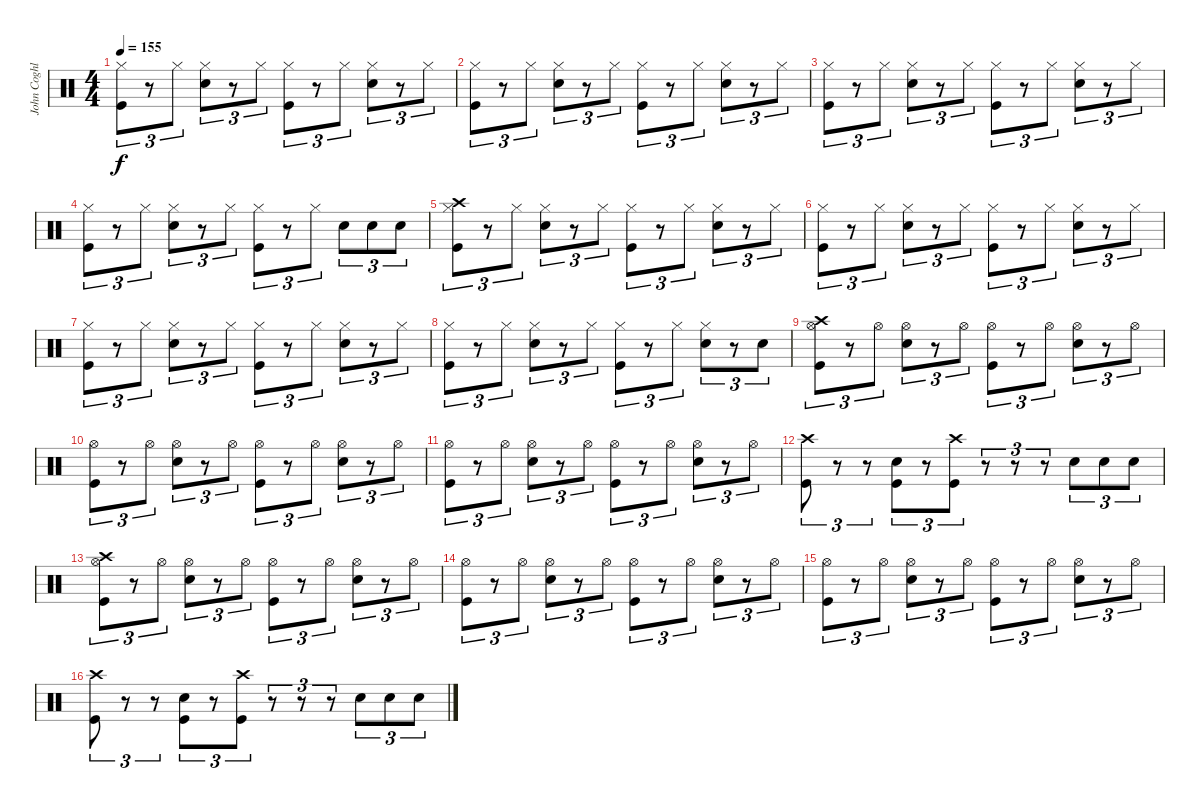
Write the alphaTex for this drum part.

\track ("John Coghlan" "John Coghl") {instrument percussion}
\staff {score}
\articulation defaults
\ts (4 4)
\tempo 155
\clef neutral
\ks c
("Hi-Hat (closed)" "Kick (hit)").8{tu (3 2) dy f} r.8{tu (3 2)} "Hi-Hat (closed)".8{tu (3 2)} ("Electric Snare (hit)" "Hi-Hat (closed)").8{tu (3 2)} r.8{tu (3 2)} "Hi-Hat (closed)".8{tu (3 2)} ("Hi-Hat (closed)" "Kick (hit)").8{tu (3 2)} r.8{tu (3 2)} "Hi-Hat (closed)".8{tu (3 2)} ("Electric Snare (hit)" "Hi-Hat (closed)").8{tu (3 2)} r.8{tu (3 2)} "Hi-Hat (closed)".8{tu (3 2)} |
("Hi-Hat (closed)" "Kick (hit)").8{tu (3 2)} r.8{tu (3 2)} "Hi-Hat (closed)".8{tu (3 2)} ("Electric Snare (hit)" "Hi-Hat (closed)").8{tu (3 2)} r.8{tu (3 2)} "Hi-Hat (closed)".8{tu (3 2)} ("Hi-Hat (closed)" "Kick (hit)").8{tu (3 2)} r.8{tu (3 2)} "Hi-Hat (closed)".8{tu (3 2)} ("Electric Snare (hit)" "Hi-Hat (closed)").8{tu (3 2)} r.8{tu (3 2)} "Hi-Hat (closed)".8{tu (3 2)} |
("Hi-Hat (closed)" "Kick (hit)").8{tu (3 2)} r.8{tu (3 2)} "Hi-Hat (closed)".8{tu (3 2)} ("Electric Snare (hit)" "Hi-Hat (closed)").8{tu (3 2)} r.8{tu (3 2)} "Hi-Hat (closed)".8{tu (3 2)} ("Hi-Hat (closed)" "Kick (hit)").8{tu (3 2)} r.8{tu (3 2)} "Hi-Hat (closed)".8{tu (3 2)} ("Electric Snare (hit)" "Hi-Hat (closed)").8{tu (3 2)} r.8{tu (3 2)} "Hi-Hat (closed)".8{tu (3 2)} |
("Hi-Hat (closed)" "Kick (hit)").8{tu (3 2)} r.8{tu (3 2)} "Hi-Hat (closed)".8{tu (3 2)} ("Electric Snare (hit)" "Hi-Hat (closed)").8{tu (3 2)} r.8{tu (3 2)} "Hi-Hat (closed)".8{tu (3 2)} ("Hi-Hat (closed)" "Kick (hit)").8{tu (3 2)} r.8{tu (3 2)} "Hi-Hat (closed)".8{tu (3 2)} "Electric Snare (hit)".8{tu (3 2)} "Electric Snare (hit)".8{tu (3 2)} "Electric Snare (hit)".8{tu (3 2)} |
("Crash high (hit)" "Hi-Hat (closed)" "Kick (hit)").8{tu (3 2)} r.8{tu (3 2)} "Hi-Hat (closed)".8{tu (3 2)} ("Electric Snare (hit)" "Hi-Hat (closed)").8{tu (3 2)} r.8{tu (3 2)} "Hi-Hat (closed)".8{tu (3 2)} ("Hi-Hat (closed)" "Kick (hit)").8{tu (3 2)} r.8{tu (3 2)} "Hi-Hat (closed)".8{tu (3 2)} ("Electric Snare (hit)" "Hi-Hat (closed)").8{tu (3 2)} r.8{tu (3 2)} "Hi-Hat (closed)".8{tu (3 2)} |
("Hi-Hat (closed)" "Kick (hit)").8{tu (3 2)} r.8{tu (3 2)} "Hi-Hat (closed)".8{tu (3 2)} ("Electric Snare (hit)" "Hi-Hat (closed)").8{tu (3 2)} r.8{tu (3 2)} "Hi-Hat (closed)".8{tu (3 2)} ("Hi-Hat (closed)" "Kick (hit)").8{tu (3 2)} r.8{tu (3 2)} "Hi-Hat (closed)".8{tu (3 2)} ("Electric Snare (hit)" "Hi-Hat (closed)").8{tu (3 2)} r.8{tu (3 2)} "Hi-Hat (closed)".8{tu (3 2)} |
("Hi-Hat (closed)" "Kick (hit)").8{tu (3 2)} r.8{tu (3 2)} "Hi-Hat (closed)".8{tu (3 2)} ("Electric Snare (hit)" "Hi-Hat (closed)").8{tu (3 2)} r.8{tu (3 2)} "Hi-Hat (closed)".8{tu (3 2)} ("Hi-Hat (closed)" "Kick (hit)").8{tu (3 2)} r.8{tu (3 2)} "Hi-Hat (closed)".8{tu (3 2)} ("Electric Snare (hit)" "Hi-Hat (closed)").8{tu (3 2)} r.8{tu (3 2)} "Hi-Hat (closed)".8{tu (3 2)} |
("Hi-Hat (closed)" "Kick (hit)").8{tu (3 2)} r.8{tu (3 2)} "Hi-Hat (closed)".8{tu (3 2)} ("Electric Snare (hit)" "Hi-Hat (closed)").8{tu (3 2)} r.8{tu (3 2)} "Hi-Hat (closed)".8{tu (3 2)} ("Hi-Hat (closed)" "Kick (hit)").8{tu (3 2)} r.8{tu (3 2)} "Hi-Hat (closed)".8{tu (3 2)} ("Electric Snare (hit)" "Hi-Hat (closed)").8{tu (3 2)} r.8{tu (3 2)} "Electric Snare (hit)".8{tu (3 2)} |
("Crash high (hit)" "Hi-Hat (open)" "Kick (hit)").8{tu (3 2)} r.8{tu (3 2)} "Hi-Hat (open)".8{tu (3 2)} ("Electric Snare (hit)" "Hi-Hat (open)").8{tu (3 2)} r.8{tu (3 2)} "Hi-Hat (open)".8{tu (3 2)} ("Hi-Hat (open)" "Kick (hit)").8{tu (3 2)} r.8{tu (3 2)} "Hi-Hat (open)".8{tu (3 2)} ("Electric Snare (hit)" "Hi-Hat (open)").8{tu (3 2)} r.8{tu (3 2)} "Hi-Hat (open)".8{tu (3 2)} |
("Hi-Hat (open)" "Kick (hit)").8{tu (3 2)} r.8{tu (3 2)} "Hi-Hat (open)".8{tu (3 2)} ("Electric Snare (hit)" "Hi-Hat (open)").8{tu (3 2)} r.8{tu (3 2)} "Hi-Hat (open)".8{tu (3 2)} ("Hi-Hat (open)" "Kick (hit)").8{tu (3 2)} r.8{tu (3 2)} "Hi-Hat (open)".8{tu (3 2)} ("Electric Snare (hit)" "Hi-Hat (open)").8{tu (3 2)} r.8{tu (3 2)} "Hi-Hat (open)".8{tu (3 2)} |
("Hi-Hat (open)" "Kick (hit)").8{tu (3 2)} r.8{tu (3 2)} "Hi-Hat (open)".8{tu (3 2)} ("Electric Snare (hit)" "Hi-Hat (open)").8{tu (3 2)} r.8{tu (3 2)} "Hi-Hat (open)".8{tu (3 2)} ("Hi-Hat (open)" "Kick (hit)").8{tu (3 2)} r.8{tu (3 2)} "Hi-Hat (open)".8{tu (3 2)} ("Electric Snare (hit)" "Hi-Hat (open)").8{tu (3 2)} r.8{tu (3 2)} "Hi-Hat (open)".8{tu (3 2)} |
("Crash high (hit)" "Kick (hit)").8{tu (3 2)} r.8{tu (3 2)} r.8{tu (3 2)} ("Electric Snare (hit)" "Kick (hit)").8{tu (3 2)} r.8{tu (3 2)} ("Crash high (hit)" "Kick (hit)").8{tu (3 2)} r.8{tu (3 2)} r.8{tu (3 2)} r.8{tu (3 2)} "Electric Snare (hit)".8{tu (3 2)} "Electric Snare (hit)".8{tu (3 2)} "Electric Snare (hit)".8{tu (3 2)} |
("Crash high (hit)" "Hi-Hat (open)" "Kick (hit)").8{tu (3 2)} r.8{tu (3 2)} "Hi-Hat (open)".8{tu (3 2)} ("Electric Snare (hit)" "Hi-Hat (open)").8{tu (3 2)} r.8{tu (3 2)} "Hi-Hat (open)".8{tu (3 2)} ("Hi-Hat (open)" "Kick (hit)").8{tu (3 2)} r.8{tu (3 2)} "Hi-Hat (open)".8{tu (3 2)} ("Electric Snare (hit)" "Hi-Hat (open)").8{tu (3 2)} r.8{tu (3 2)} "Hi-Hat (open)".8{tu (3 2)} |
("Hi-Hat (open)" "Kick (hit)").8{tu (3 2)} r.8{tu (3 2)} "Hi-Hat (open)".8{tu (3 2)} ("Electric Snare (hit)" "Hi-Hat (open)").8{tu (3 2)} r.8{tu (3 2)} "Hi-Hat (open)".8{tu (3 2)} ("Hi-Hat (open)" "Kick (hit)").8{tu (3 2)} r.8{tu (3 2)} "Hi-Hat (open)".8{tu (3 2)} ("Electric Snare (hit)" "Hi-Hat (open)").8{tu (3 2)} r.8{tu (3 2)} "Hi-Hat (open)".8{tu (3 2)} |
("Hi-Hat (open)" "Kick (hit)").8{tu (3 2)} r.8{tu (3 2)} "Hi-Hat (open)".8{tu (3 2)} ("Electric Snare (hit)" "Hi-Hat (open)").8{tu (3 2)} r.8{tu (3 2)} "Hi-Hat (open)".8{tu (3 2)} ("Hi-Hat (open)" "Kick (hit)").8{tu (3 2)} r.8{tu (3 2)} "Hi-Hat (open)".8{tu (3 2)} ("Electric Snare (hit)" "Hi-Hat (open)").8{tu (3 2)} r.8{tu (3 2)} "Hi-Hat (open)".8{tu (3 2)} |
("Crash high (hit)" "Kick (hit)").8{tu (3 2)} r.8{tu (3 2)} r.8{tu (3 2)} ("Electric Snare (hit)" "Kick (hit)").8{tu (3 2)} r.8{tu (3 2)} ("Crash high (hit)" "Kick (hit)").8{tu (3 2)} r.8{tu (3 2)} r.8{tu (3 2)} r.8{tu (3 2)} "Electric Snare (hit)".8{tu (3 2)} "Electric Snare (hit)".8{tu (3 2)} "Electric Snare (hit)".8{tu (3 2)}
